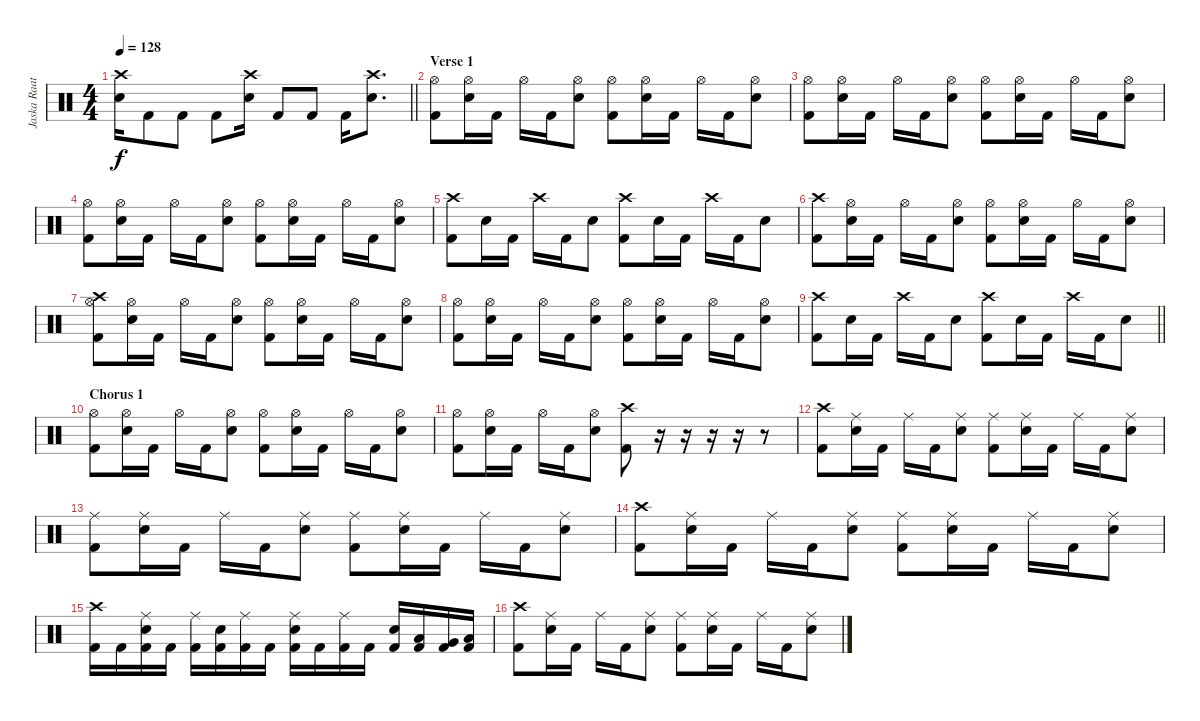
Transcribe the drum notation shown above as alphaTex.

\track ("Jaska Raatikainen" "Jaska Raat") {instrument percussion}
\staff {score}
\articulation defaults
\ts (4 4)
\tempo 128
\clef neutral
\barLineRight lightlight
\ks c
("Crash high (hit)" "Electric Snare (hit)").16{dy f} "Kick (hit) 2".8 "Kick (hit) 2".8 "Kick (hit) 2".8 ("Crash high (hit)" "Electric Snare (hit)").16 "Kick (hit) 2".8 "Kick (hit) 2".8 "Kick (hit) 2".16 ("Crash high (hit)" "Electric Snare (hit)").8{d} |
\section ("" "Verse 1")
("Hi-Hat (open)" "Kick (hit) 2").8 ("Hi-Hat (open)" "Electric Snare (hit)").16 "Kick (hit) 2".16 "Hi-Hat (open)".16 "Kick (hit) 2".16 ("Hi-Hat (open)" "Electric Snare (hit)").8 ("Hi-Hat (open)" "Kick (hit) 2").8 ("Hi-Hat (open)" "Electric Snare (hit)").16 "Kick (hit) 2".16 "Hi-Hat (open)".16 "Kick (hit) 2".16 ("Hi-Hat (open)" "Electric Snare (hit)").8 |
("Hi-Hat (open)" "Kick (hit) 2").8 ("Hi-Hat (open)" "Electric Snare (hit)").16 "Kick (hit) 2".16 "Hi-Hat (open)".16 "Kick (hit) 2".16 ("Hi-Hat (open)" "Electric Snare (hit)").8 ("Hi-Hat (open)" "Kick (hit) 2").8 ("Hi-Hat (open)" "Electric Snare (hit)").16 "Kick (hit) 2".16 "Hi-Hat (open)".16 "Kick (hit) 2".16 ("Hi-Hat (open)" "Electric Snare (hit)").8 |
("Hi-Hat (open)" "Kick (hit) 2").8 ("Hi-Hat (open)" "Electric Snare (hit)").16 "Kick (hit) 2".16 "Hi-Hat (open)".16 "Kick (hit) 2".16 ("Hi-Hat (open)" "Electric Snare (hit)").8 ("Hi-Hat (open)" "Kick (hit) 2").8 ("Hi-Hat (open)" "Electric Snare (hit)").16 "Kick (hit) 2".16 "Hi-Hat (open)".16 "Kick (hit) 2".16 ("Hi-Hat (open)" "Electric Snare (hit)").8 |
("Crash high (hit)" "Kick (hit) 2").8 "Electric Snare (hit)".16 "Kick (hit) 2".16 "Crash high (hit)".16 "Kick (hit) 2".16 "Electric Snare (hit)".8 ("Crash high (hit)" "Kick (hit) 2").8 "Electric Snare (hit)".16 "Kick (hit) 2".16 "Crash high (hit)".16 "Kick (hit) 2".16 "Electric Snare (hit)".8 |
("Crash high (hit)" "Kick (hit) 2").8 ("Hi-Hat (open)" "Electric Snare (hit)").16 "Kick (hit) 2".16 "Hi-Hat (open)".16 "Kick (hit) 2".16 ("Hi-Hat (open)" "Electric Snare (hit)").8 ("Hi-Hat (open)" "Kick (hit) 2").8 ("Hi-Hat (open)" "Electric Snare (hit)").16 "Kick (hit) 2".16 "Hi-Hat (open)".16 "Kick (hit) 2".16 ("Hi-Hat (open)" "Electric Snare (hit)").8 |
("Crash high (hit)" "Hi-Hat (open)" "Kick (hit) 2").8 ("Hi-Hat (open)" "Electric Snare (hit)").16 "Kick (hit) 2".16 "Hi-Hat (open)".16 "Kick (hit) 2".16 ("Hi-Hat (open)" "Electric Snare (hit)").8 ("Hi-Hat (open)" "Kick (hit) 2").8 ("Hi-Hat (open)" "Electric Snare (hit)").16 "Kick (hit) 2".16 "Hi-Hat (open)".16 "Kick (hit) 2".16 ("Hi-Hat (open)" "Electric Snare (hit)").8 |
("Hi-Hat (open)" "Kick (hit) 2").8 ("Hi-Hat (open)" "Electric Snare (hit)").16 "Kick (hit) 2".16 "Hi-Hat (open)".16 "Kick (hit) 2".16 ("Hi-Hat (open)" "Electric Snare (hit)").8 ("Hi-Hat (open)" "Kick (hit) 2").8 ("Hi-Hat (open)" "Electric Snare (hit)").16 "Kick (hit) 2".16 "Hi-Hat (open)".16 "Kick (hit) 2".16 ("Hi-Hat (open)" "Electric Snare (hit)").8 |
\barLineRight lightlight
("Crash high (hit)" "Kick (hit) 2").8 "Electric Snare (hit)".16 "Kick (hit) 2".16 "Crash high (hit)".16 "Kick (hit) 2".16 "Electric Snare (hit)".8 ("Crash high (hit)" "Kick (hit) 2").8 "Electric Snare (hit)".16 "Kick (hit) 2".16 "Crash high (hit)".16 "Kick (hit) 2".16 "Electric Snare (hit)".8 |
\section ("" "Chorus 1")
("Hi-Hat (open)" "Kick (hit) 2").8 ("Hi-Hat (open)" "Electric Snare (hit)").16 "Kick (hit) 2".16 "Hi-Hat (open)".16 "Kick (hit) 2".16 ("Hi-Hat (open)" "Electric Snare (hit)").8 ("Hi-Hat (open)" "Kick (hit) 2").8 ("Hi-Hat (open)" "Electric Snare (hit)").16 "Kick (hit) 2".16 "Hi-Hat (open)".16 "Kick (hit) 2".16 ("Hi-Hat (open)" "Electric Snare (hit)").8 |
("Hi-Hat (open)" "Kick (hit) 2").8 ("Hi-Hat (open)" "Electric Snare (hit)").16 "Kick (hit) 2".16 "Hi-Hat (open)".16 "Kick (hit) 2".16 ("Hi-Hat (open)" "Electric Snare (hit)").8 ("Crash high (hit)" "Kick (hit) 2").8 r.16 r.16 r.16 r.16 r.8 |
("Crash high (hit)" "Kick (hit) 2").8 ("Ride (middle)" "Electric Snare (hit)").16 "Kick (hit) 2".16 "Ride (middle)".16 "Kick (hit) 2".16 ("Ride (middle)" "Electric Snare (hit)").8 ("Ride (middle)" "Kick (hit) 2").8 ("Ride (middle)" "Electric Snare (hit)").16 "Kick (hit) 2".16 "Ride (middle)".16 "Kick (hit) 2".16 ("Ride (middle)" "Electric Snare (hit)").8 |
("Ride (middle)" "Kick (hit) 2").8 ("Ride (middle)" "Electric Snare (hit)").16 "Kick (hit) 2".16 "Ride (middle)".16 "Kick (hit) 2".16 ("Ride (middle)" "Electric Snare (hit)").8 ("Ride (middle)" "Kick (hit) 2").8 ("Ride (middle)" "Electric Snare (hit)").16 "Kick (hit) 2".16 "Ride (middle)".16 "Kick (hit) 2".16 ("Ride (middle)" "Electric Snare (hit)").8 |
("Crash high (hit)" "Kick (hit) 2").8 ("Ride (middle)" "Electric Snare (hit)").16 "Kick (hit) 2".16 "Ride (middle)".16 "Kick (hit) 2".16 ("Ride (middle)" "Electric Snare (hit)").8 ("Ride (middle)" "Kick (hit) 2").8 ("Ride (middle)" "Electric Snare (hit)").16 "Kick (hit) 2".16 "Ride (middle)".16 "Kick (hit) 2".16 ("Ride (middle)" "Electric Snare (hit)").8 |
("Crash high (hit)" "Kick (hit) 2").16 "Kick (hit) 2".16 ("Ride (middle)" "Electric Snare (hit)" "Kick (hit) 2").16 "Kick (hit) 2".16 ("Ride (middle)" "Kick (hit) 2").16 ("Electric Snare (hit)" "Kick (hit) 2").16 ("Ride (middle)" "Kick (hit) 2").16 "Kick (hit) 2".16 ("Ride (middle)" "Electric Snare (hit)" "Kick (hit) 2").16 "Kick (hit) 2".16 ("Ride (middle)" "Kick (hit) 2").16 "Kick (hit) 2".16 ("Electric Snare (hit)" "Kick (hit) 2").16 ("Low Tom (hit)" "Kick (hit) 2").16 ("Very Low Tom (hit)" "Kick (hit) 2").16 ("Low Floor Tom (hit)" "Kick (hit) 2").16 |
("Crash high (hit)" "Kick (hit) 2").8 ("Ride (middle)" "Electric Snare (hit)").16 "Kick (hit) 2".16 "Ride (middle)".16 "Kick (hit) 2".16 ("Ride (middle)" "Electric Snare (hit)").8 ("Ride (middle)" "Kick (hit) 2").8 ("Ride (middle)" "Electric Snare (hit)").16 "Kick (hit) 2".16 "Ride (middle)".16 "Kick (hit) 2".16 ("Ride (middle)" "Electric Snare (hit)").8
